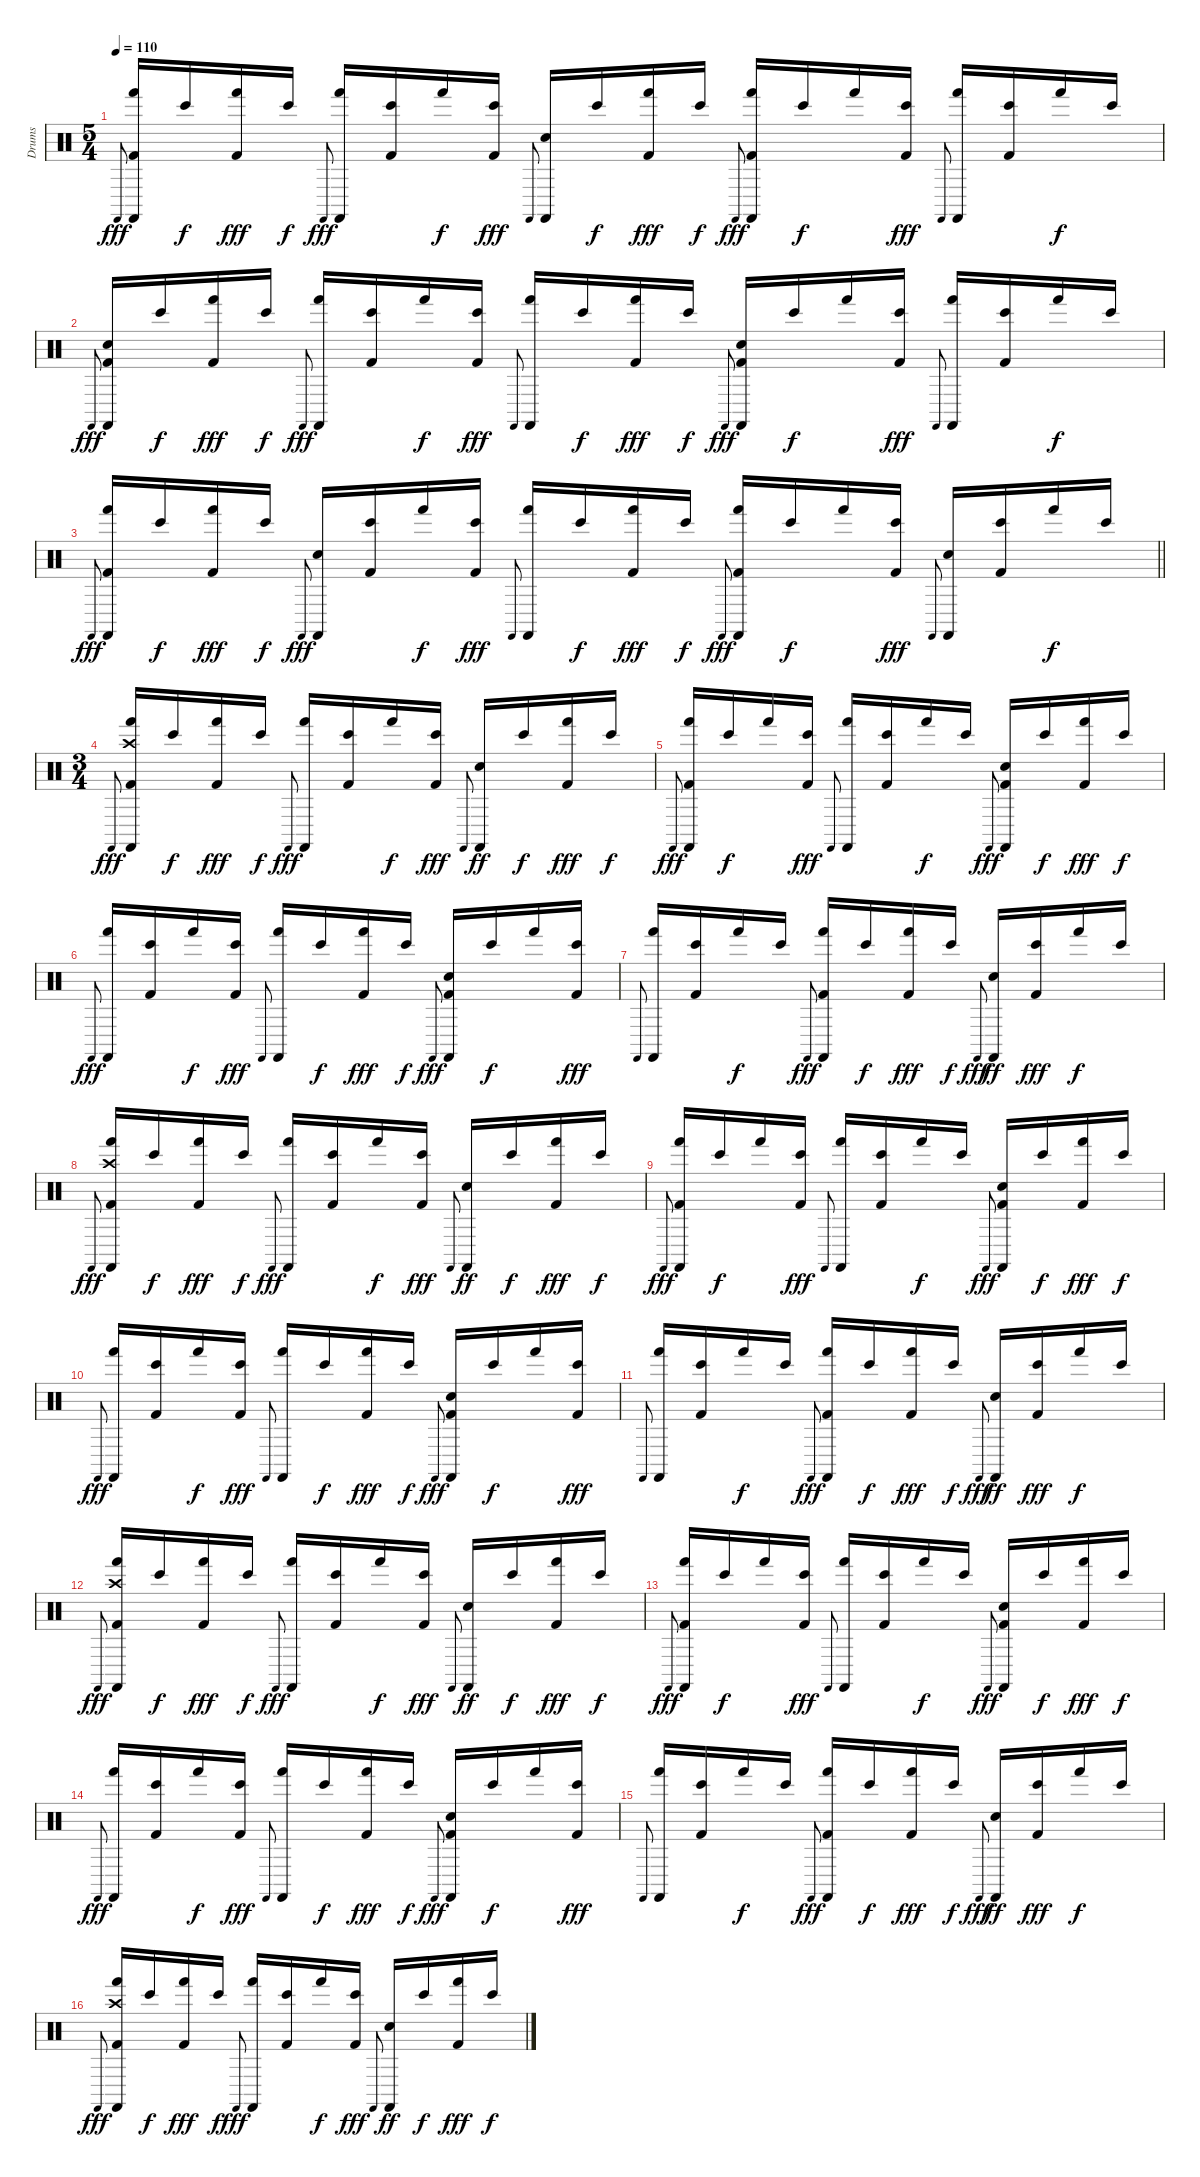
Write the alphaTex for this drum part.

\track ("Drums" "Drums") {instrument percussion}
\staff {score}
\articulation defaults
\ts (5 4)
\tempo 110
\clef neutral
\ks c "Castanets (hit)".8{gr onbeat dy fff}
("Castanets (hit)" "Hand (hit)" "Kick (hit) 2").16 "Bongo High (hit)".16{dy f} ("Hand (hit)" "Kick (hit) 2").16{dy fff} "Bongo High (hit)".16{dy f} "Castanets (hit)".8{gr onbeat dy fff} ("Castanets (hit)" "Hand (hit)").16 ("Bongo High (hit)" "Kick (hit) 2").16 "Hand (hit)".16{dy f} ("Bongo High (hit)" "Kick (hit) 2").16{dy fff} "Castanets (hit)".8{gr onbeat} ("Castanets (hit)" "Snare (hit) 2").16 "Bongo High (hit)".16{dy f} ("Hand (hit)" "Kick (hit) 2").16{dy fff} "Bongo High (hit)".16{dy f} "Castanets (hit)".8{gr onbeat dy fff} ("Castanets (hit)" "Hand (hit)" "Kick (hit) 2").16 "Bongo High (hit)".16{dy f} "Hand (hit)".16 ("Bongo High (hit)" "Kick (hit) 2").16{dy fff} "Castanets (hit)".8{gr onbeat} ("Castanets (hit)" "Hand (hit)").16 ("Bongo High (hit)" "Kick (hit) 2").16 "Hand (hit)".16{dy f} "Bongo High (hit)".16 |
"Castanets (hit)".8{gr onbeat dy fff} ("Castanets (hit)" "Snare (hit) 2" "Kick (hit) 2").16 "Bongo High (hit)".16{dy f} ("Hand (hit)" "Kick (hit) 2").16{dy fff} "Bongo High (hit)".16{dy f} "Castanets (hit)".8{gr onbeat dy fff} ("Castanets (hit)" "Hand (hit)").16 ("Bongo High (hit)" "Kick (hit) 2").16 "Hand (hit)".16{dy f} ("Bongo High (hit)" "Kick (hit) 2").16{dy fff} "Castanets (hit)".8{gr onbeat} ("Castanets (hit)" "Hand (hit)").16 "Bongo High (hit)".16{dy f} ("Hand (hit)" "Kick (hit) 2").16{dy fff} "Bongo High (hit)".16{dy f} "Castanets (hit)".8{gr onbeat dy fff} ("Castanets (hit)" "Snare (hit) 2" "Kick (hit) 2").16 "Bongo High (hit)".16{dy f} "Hand (hit)".16 ("Bongo High (hit)" "Kick (hit) 2").16{dy fff} "Castanets (hit)".8{gr onbeat} ("Castanets (hit)" "Hand (hit)").16 ("Bongo High (hit)" "Kick (hit) 2").16 "Hand (hit)".16{dy f} "Bongo High (hit)".16 |
\barLineRight lightlight "Castanets (hit)".8{gr onbeat dy fff}
("Castanets (hit)" "Hand (hit)" "Kick (hit) 2").16 "Bongo High (hit)".16{dy f} ("Hand (hit)" "Kick (hit) 2").16{dy fff} "Bongo High (hit)".16{dy f} "Castanets (hit)".8{gr onbeat dy fff} ("Castanets (hit)" "Snare (hit) 2").16 ("Bongo High (hit)" "Kick (hit) 2").16 "Hand (hit)".16{dy f} ("Bongo High (hit)" "Kick (hit) 2").16{dy fff} "Castanets (hit)".8{gr onbeat} ("Castanets (hit)" "Hand (hit)").16 "Bongo High (hit)".16{dy f} ("Hand (hit)" "Kick (hit) 2").16{dy fff} "Bongo High (hit)".16{dy f} "Castanets (hit)".8{gr onbeat dy fff} ("Castanets (hit)" "Hand (hit)" "Kick (hit) 2").16 "Bongo High (hit)".16{dy f} "Hand (hit)".16 ("Bongo High (hit)" "Kick (hit) 2").16{dy fff} "Castanets (hit)".8{gr onbeat} ("Castanets (hit)" "Snare (hit) 2").16 ("Bongo High (hit)" "Kick (hit) 2").16 "Hand (hit)".16{dy f} "Bongo High (hit)".16 |
\ts (3 4)
\section ("" "")
"Castanets (hit)".8{gr onbeat dy fff} ("Crash high (hit)" "Castanets (hit)" "Hand (hit)" "Kick (hit) 2").16 "Bongo High (hit)".16{dy f} ("Hand (hit)" "Kick (hit) 2").16{dy fff} "Bongo High (hit)".16{dy f} "Castanets (hit)".8{gr onbeat dy fff} ("Castanets (hit)" "Hand (hit)").16 ("Bongo High (hit)" "Kick (hit) 2").16 "Hand (hit)".16{dy f} ("Bongo High (hit)" "Kick (hit) 2").16{dy fff} "Castanets (hit)".8{gr onbeat} ("Castanets (hit)" "Snare (hit) 2").16{dy ff} "Bongo High (hit)".16{dy f} ("Hand (hit)" "Kick (hit) 2").16{dy fff} "Bongo High (hit)".16{dy f} |
"Castanets (hit)".8{gr onbeat dy fff} ("Castanets (hit)" "Hand (hit)" "Kick (hit) 2").16 "Bongo High (hit)".16{dy f} "Hand (hit)".16 ("Bongo High (hit)" "Kick (hit) 2").16{dy fff} "Castanets (hit)".8{gr onbeat} ("Castanets (hit)" "Hand (hit)").16 ("Bongo High (hit)" "Kick (hit) 2").16 "Hand (hit)".16{dy f} "Bongo High (hit)".16 "Castanets (hit)".8{gr onbeat dy fff} ("Castanets (hit)" "Snare (hit) 2" "Kick (hit) 2").16 "Bongo High (hit)".16{dy f} ("Hand (hit)" "Kick (hit) 2").16{dy fff} "Bongo High (hit)".16{dy f} |
"Castanets (hit)".8{gr onbeat dy fff} ("Castanets (hit)" "Hand (hit)").16 ("Bongo High (hit)" "Kick (hit) 2").16 "Hand (hit)".16{dy f} ("Bongo High (hit)" "Kick (hit) 2").16{dy fff} "Castanets (hit)".8{gr onbeat} ("Castanets (hit)" "Hand (hit)").16 "Bongo High (hit)".16{dy f} ("Hand (hit)" "Kick (hit) 2").16{dy fff} "Bongo High (hit)".16{dy f} "Castanets (hit)".8{gr onbeat dy fff} ("Castanets (hit)" "Snare (hit) 2" "Kick (hit) 2").16 "Bongo High (hit)".16{dy f} "Hand (hit)".16 ("Bongo High (hit)" "Kick (hit) 2").16{dy fff} |
"Castanets (hit)".8{gr onbeat} ("Castanets (hit)" "Hand (hit)").16 ("Bongo High (hit)" "Kick (hit) 2").16 "Hand (hit)".16{dy f} "Bongo High (hit)".16 "Castanets (hit)".8{gr onbeat dy fff} ("Castanets (hit)" "Hand (hit)" "Kick (hit) 2").16 "Bongo High (hit)".16{dy f} ("Hand (hit)" "Kick (hit) 2").16{dy fff} "Bongo High (hit)".16{dy f} "Castanets (hit)".8{gr onbeat dy fff} ("Castanets (hit)" "Snare (hit) 2").16{dy ff} ("Bongo High (hit)" "Kick (hit) 2").16{dy fff} "Hand (hit)".16{dy f} "Bongo High (hit)".16 |
"Castanets (hit)".8{gr onbeat dy fff} ("Crash high (hit)" "Castanets (hit)" "Hand (hit)" "Kick (hit) 2").16 "Bongo High (hit)".16{dy f} ("Hand (hit)" "Kick (hit) 2").16{dy fff} "Bongo High (hit)".16{dy f} "Castanets (hit)".8{gr onbeat dy fff} ("Castanets (hit)" "Hand (hit)").16 ("Bongo High (hit)" "Kick (hit) 2").16 "Hand (hit)".16{dy f} ("Bongo High (hit)" "Kick (hit) 2").16{dy fff} "Castanets (hit)".8{gr onbeat} ("Castanets (hit)" "Snare (hit) 2").16{dy ff} "Bongo High (hit)".16{dy f} ("Hand (hit)" "Kick (hit) 2").16{dy fff} "Bongo High (hit)".16{dy f} |
"Castanets (hit)".8{gr onbeat dy fff} ("Castanets (hit)" "Hand (hit)" "Kick (hit) 2").16 "Bongo High (hit)".16{dy f} "Hand (hit)".16 ("Bongo High (hit)" "Kick (hit) 2").16{dy fff} "Castanets (hit)".8{gr onbeat} ("Castanets (hit)" "Hand (hit)").16 ("Bongo High (hit)" "Kick (hit) 2").16 "Hand (hit)".16{dy f} "Bongo High (hit)".16 "Castanets (hit)".8{gr onbeat dy fff} ("Castanets (hit)" "Snare (hit) 2" "Kick (hit) 2").16 "Bongo High (hit)".16{dy f} ("Hand (hit)" "Kick (hit) 2").16{dy fff} "Bongo High (hit)".16{dy f} |
"Castanets (hit)".8{gr onbeat dy fff} ("Castanets (hit)" "Hand (hit)").16 ("Bongo High (hit)" "Kick (hit) 2").16 "Hand (hit)".16{dy f} ("Bongo High (hit)" "Kick (hit) 2").16{dy fff} "Castanets (hit)".8{gr onbeat} ("Castanets (hit)" "Hand (hit)").16 "Bongo High (hit)".16{dy f} ("Hand (hit)" "Kick (hit) 2").16{dy fff} "Bongo High (hit)".16{dy f} "Castanets (hit)".8{gr onbeat dy fff} ("Castanets (hit)" "Snare (hit) 2" "Kick (hit) 2").16 "Bongo High (hit)".16{dy f} "Hand (hit)".16 ("Bongo High (hit)" "Kick (hit) 2").16{dy fff} |
"Castanets (hit)".8{gr onbeat} ("Castanets (hit)" "Hand (hit)").16 ("Bongo High (hit)" "Kick (hit) 2").16 "Hand (hit)".16{dy f} "Bongo High (hit)".16 "Castanets (hit)".8{gr onbeat dy fff} ("Castanets (hit)" "Hand (hit)" "Kick (hit) 2").16 "Bongo High (hit)".16{dy f} ("Hand (hit)" "Kick (hit) 2").16{dy fff} "Bongo High (hit)".16{dy f} "Castanets (hit)".8{gr onbeat dy fff} ("Castanets (hit)" "Snare (hit) 2").16{dy ff} ("Bongo High (hit)" "Kick (hit) 2").16{dy fff} "Hand (hit)".16{dy f} "Bongo High (hit)".16 |
"Castanets (hit)".8{gr onbeat dy fff} ("Crash high (hit)" "Castanets (hit)" "Hand (hit)" "Kick (hit) 2").16 "Bongo High (hit)".16{dy f} ("Hand (hit)" "Kick (hit) 2").16{dy fff} "Bongo High (hit)".16{dy f} "Castanets (hit)".8{gr onbeat dy fff} ("Castanets (hit)" "Hand (hit)").16 ("Bongo High (hit)" "Kick (hit) 2").16 "Hand (hit)".16{dy f} ("Bongo High (hit)" "Kick (hit) 2").16{dy fff} "Castanets (hit)".8{gr onbeat} ("Castanets (hit)" "Snare (hit) 2").16{dy ff} "Bongo High (hit)".16{dy f} ("Hand (hit)" "Kick (hit) 2").16{dy fff} "Bongo High (hit)".16{dy f} |
"Castanets (hit)".8{gr onbeat dy fff} ("Castanets (hit)" "Hand (hit)" "Kick (hit) 2").16 "Bongo High (hit)".16{dy f} "Hand (hit)".16 ("Bongo High (hit)" "Kick (hit) 2").16{dy fff} "Castanets (hit)".8{gr onbeat} ("Castanets (hit)" "Hand (hit)").16 ("Bongo High (hit)" "Kick (hit) 2").16 "Hand (hit)".16{dy f} "Bongo High (hit)".16 "Castanets (hit)".8{gr onbeat dy fff} ("Castanets (hit)" "Snare (hit) 2" "Kick (hit) 2").16 "Bongo High (hit)".16{dy f} ("Hand (hit)" "Kick (hit) 2").16{dy fff} "Bongo High (hit)".16{dy f} |
"Castanets (hit)".8{gr onbeat dy fff} ("Castanets (hit)" "Hand (hit)").16 ("Bongo High (hit)" "Kick (hit) 2").16 "Hand (hit)".16{dy f} ("Bongo High (hit)" "Kick (hit) 2").16{dy fff} "Castanets (hit)".8{gr onbeat} ("Castanets (hit)" "Hand (hit)").16 "Bongo High (hit)".16{dy f} ("Hand (hit)" "Kick (hit) 2").16{dy fff} "Bongo High (hit)".16{dy f} "Castanets (hit)".8{gr onbeat dy fff} ("Castanets (hit)" "Snare (hit) 2" "Kick (hit) 2").16 "Bongo High (hit)".16{dy f} "Hand (hit)".16 ("Bongo High (hit)" "Kick (hit) 2").16{dy fff} |
"Castanets (hit)".8{gr onbeat} ("Castanets (hit)" "Hand (hit)").16 ("Bongo High (hit)" "Kick (hit) 2").16 "Hand (hit)".16{dy f} "Bongo High (hit)".16 "Castanets (hit)".8{gr onbeat dy fff} ("Castanets (hit)" "Hand (hit)" "Kick (hit) 2").16 "Bongo High (hit)".16{dy f} ("Hand (hit)" "Kick (hit) 2").16{dy fff} "Bongo High (hit)".16{dy f} "Castanets (hit)".8{gr onbeat dy fff} ("Castanets (hit)" "Snare (hit) 2").16{dy ff} ("Bongo High (hit)" "Kick (hit) 2").16{dy fff} "Hand (hit)".16{dy f} "Bongo High (hit)".16 |
"Castanets (hit)".8{gr onbeat dy fff} ("Crash high (hit)" "Castanets (hit)" "Hand (hit)" "Kick (hit) 2").16 "Bongo High (hit)".16{dy f} ("Hand (hit)" "Kick (hit) 2").16{dy fff} "Bongo High (hit)".16{dy f} "Castanets (hit)".8{gr onbeat dy fff} ("Castanets (hit)" "Hand (hit)").16 ("Bongo High (hit)" "Kick (hit) 2").16 "Hand (hit)".16{dy f} ("Bongo High (hit)" "Kick (hit) 2").16{dy fff} "Castanets (hit)".8{gr onbeat} ("Castanets (hit)" "Snare (hit) 2").16{dy ff} "Bongo High (hit)".16{dy f} ("Hand (hit)" "Kick (hit) 2").16{dy fff} "Bongo High (hit)".16{dy f}
